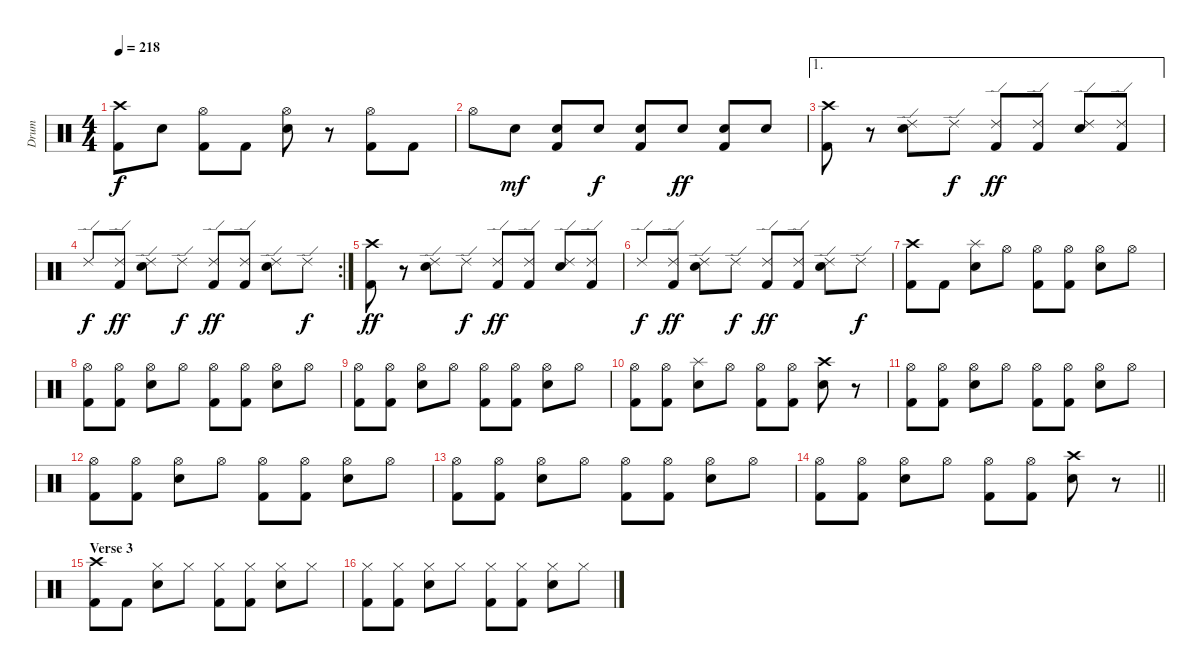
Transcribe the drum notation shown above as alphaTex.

\track ("Drum" "Drum") {instrument percussion}
\staff {score}
\articulation defaults
\ts (4 4)
\tempo 218
\clef neutral
\ks c
("Kick (hit) 2" "Crash high (hit)").8{dy f} "Snare (hit) 2".8 ("Kick (hit) 2" "Hi-Hat (open)").8 "Kick (hit) 2".8 ("Snare (hit) 2" "Hi-Hat (open)").8 r.8 ("Kick (hit) 2" "Hi-Hat (open)").8 "Kick (hit) 2".8 |
"Hi-Hat (open)".8 "Snare (hit) 2".8{dy mf} ("Kick (hit) 2" "Snare (hit) 2").8 "Snare (hit) 2".8{dy f} ("Kick (hit) 2" "Snare (hit) 2").8 "Snare (hit) 2".8{dy ff} ("Kick (hit) 2" "Snare (hit) 2").8 "Snare (hit) 2".8 |
\ae 1
("Kick (hit) 2" "Crash high (hit)").8 r.8 ("Snare (hit) 2" "Ride (edge) 2").8 "Ride (edge) 2".8{dy f} ("Kick (hit) 2" "Ride (edge) 2").8{dy ff} ("Kick (hit) 2" "Ride (edge) 2").8 ("Snare (hit) 2" "Ride (edge) 2").8 ("Kick (hit) 2" "Ride (edge) 2").8 |
\rc 2 "Ride (edge) 2".8{dy f}
("Kick (hit) 2" "Ride (edge) 2").8{dy ff} ("Snare (hit) 2" "Ride (edge) 2").8 "Ride (edge) 2".8{dy f} ("Kick (hit) 2" "Ride (edge) 2").8{dy ff} ("Kick (hit) 2" "Ride (edge) 2").8 ("Snare (hit) 2" "Ride (edge) 2").8 "Ride (edge) 2".8{dy f} |
("Kick (hit) 2" "Crash high (hit)").8{dy ff} r.8 ("Snare (hit) 2" "Ride (edge) 2").8 "Ride (edge) 2".8{dy f} ("Kick (hit) 2" "Ride (edge) 2").8{dy ff} ("Kick (hit) 2" "Ride (edge) 2").8 ("Snare (hit) 2" "Ride (edge) 2").8 ("Kick (hit) 2" "Ride (edge) 2").8 |
"Ride (edge) 2".8{dy f} ("Kick (hit) 2" "Ride (edge) 2").8{dy ff} ("Snare (hit) 2" "Ride (edge) 2").8 "Ride (edge) 2".8{dy f} ("Kick (hit) 2" "Ride (edge) 2").8{dy ff} ("Kick (hit) 2" "Ride (edge) 2").8 ("Snare (hit) 2" "Ride (edge) 2").8 "Ride (edge) 2".8{dy f} |
("Kick (hit) 2" "Crash high (hit)").8 "Kick (hit) 2".8 ("Snare (hit) 2" "Splash (hit)").8 "Hi-Hat (open)".8 ("Kick (hit) 2" "Hi-Hat (open)").8 ("Kick (hit) 2" "Hi-Hat (open)").8 ("Snare (hit) 2" "Hi-Hat (open)").8 "Hi-Hat (open)".8 |
("Kick (hit) 2" "Hi-Hat (open)").8 ("Kick (hit) 2" "Hi-Hat (open)").8 ("Snare (hit) 2" "Hi-Hat (open)").8 "Hi-Hat (open)".8 ("Kick (hit) 2" "Hi-Hat (open)").8 ("Kick (hit) 2" "Hi-Hat (open)").8 ("Snare (hit) 2" "Hi-Hat (open)").8 "Hi-Hat (open)".8 |
("Kick (hit) 2" "Hi-Hat (open)").8 ("Kick (hit) 2" "Hi-Hat (open)").8 ("Snare (hit) 2" "Hi-Hat (open)").8 "Hi-Hat (open)".8 ("Kick (hit) 2" "Hi-Hat (open)").8 ("Kick (hit) 2" "Hi-Hat (open)").8 ("Snare (hit) 2" "Hi-Hat (open)").8 "Hi-Hat (open)".8 |
("Kick (hit) 2" "Hi-Hat (open)").8 ("Kick (hit) 2" "Hi-Hat (open)").8 ("Snare (hit) 2" "Splash (hit)").8 "Hi-Hat (open)".8 ("Kick (hit) 2" "Hi-Hat (open)").8 ("Kick (hit) 2" "Hi-Hat (open)").8 ("Snare (hit) 2" "Crash high (hit)").8 r.8 |
("Kick (hit) 2" "Hi-Hat (open)").8 ("Kick (hit) 2" "Hi-Hat (open)").8 ("Snare (hit) 2" "Hi-Hat (open)").8 "Hi-Hat (open)".8 ("Kick (hit) 2" "Hi-Hat (open)").8 ("Kick (hit) 2" "Hi-Hat (open)").8 ("Snare (hit) 2" "Hi-Hat (open)").8 "Hi-Hat (open)".8 |
("Kick (hit) 2" "Hi-Hat (open)").8 ("Kick (hit) 2" "Hi-Hat (open)").8 ("Snare (hit) 2" "Hi-Hat (open)").8 "Hi-Hat (open)".8 ("Kick (hit) 2" "Hi-Hat (open)").8 ("Kick (hit) 2" "Hi-Hat (open)").8 ("Snare (hit) 2" "Hi-Hat (open)").8 "Hi-Hat (open)".8 |
("Kick (hit) 2" "Hi-Hat (open)").8 ("Kick (hit) 2" "Hi-Hat (open)").8 ("Snare (hit) 2" "Hi-Hat (open)").8 "Hi-Hat (open)".8 ("Kick (hit) 2" "Hi-Hat (open)").8 ("Kick (hit) 2" "Hi-Hat (open)").8 ("Snare (hit) 2" "Hi-Hat (open)").8 "Hi-Hat (open)".8 |
\barLineRight lightlight
("Kick (hit) 2" "Hi-Hat (open)").8 ("Kick (hit) 2" "Hi-Hat (open)").8 ("Snare (hit) 2" "Hi-Hat (open)").8 "Hi-Hat (open)".8 ("Kick (hit) 2" "Hi-Hat (open)").8 ("Kick (hit) 2" "Hi-Hat (open)").8 ("Snare (hit) 2" "Crash high (hit)").8 r.8 |
\section ("" "Verse 3")
("Kick (hit) 2" "Crash high (hit)").8 "Kick (hit) 2".8 ("Snare (hit) 2" "Hi-Hat (closed)").8 "Hi-Hat (closed)".8 ("Kick (hit) 2" "Hi-Hat (closed)").8 ("Kick (hit) 2" "Hi-Hat (closed)").8 ("Snare (hit) 2" "Hi-Hat (closed)").8 "Hi-Hat (closed)".8 |
("Kick (hit) 2" "Hi-Hat (closed)").8 ("Kick (hit) 2" "Hi-Hat (closed)").8 ("Snare (hit) 2" "Hi-Hat (closed)").8 "Hi-Hat (closed)".8 ("Kick (hit) 2" "Hi-Hat (closed)").8 ("Kick (hit) 2" "Hi-Hat (closed)").8 ("Snare (hit) 2" "Hi-Hat (closed)").8 "Hi-Hat (closed)".8
